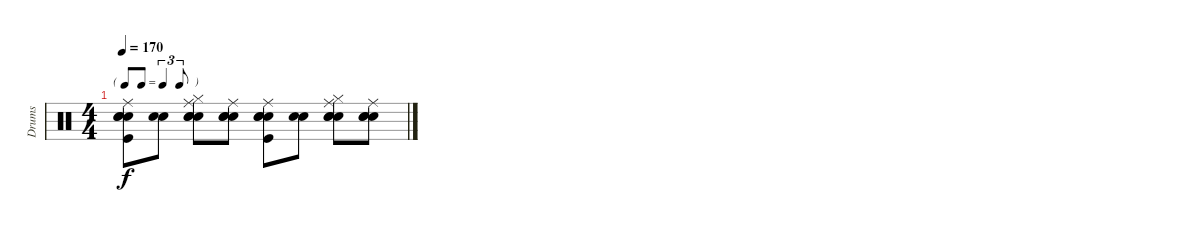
\track ("Drums" "Drums") {instrument percussion}
\staff {score}
\articulation defaults
\ts (4 4)
\tf triplet8th
\tempo 170
\clef neutral
\ks c
("Snare (hit)" "Kick (hit)" "Snare (hit) 2" "Electric Snare (hit)" "Ride (middle)").8{dy f} ("Snare (hit)" "Electric Snare (hit)").8 ("Snare (hit)" "Snare (hit) 2" "Hi-Hat (closed)" "Electric Snare (hit)" "Ride (middle)").8 ("Snare (hit)" "Snare (hit) 2" "Electric Snare (hit)" "Ride (middle)").8 ("Snare (hit)" "Kick (hit)" "Snare (hit) 2" "Electric Snare (hit)" "Ride (middle)").8 ("Snare (hit)" "Electric Snare (hit)").8 ("Snare (hit)" "Snare (hit) 2" "Hi-Hat (closed)" "Electric Snare (hit)" "Ride (middle)").8 ("Snare (hit)" "Snare (hit) 2" "Electric Snare (hit)" "Ride (middle)").8
